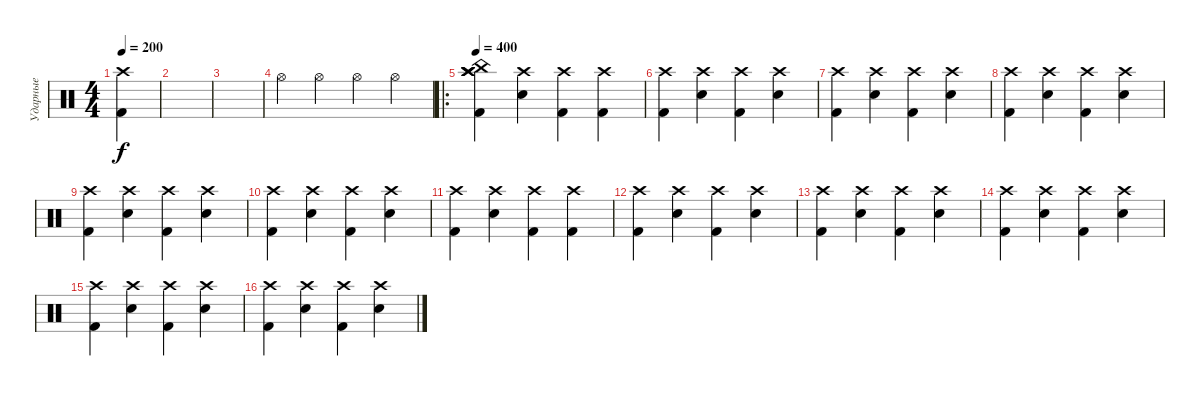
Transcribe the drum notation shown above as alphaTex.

\track ("Ударные" "Ударные") {instrument percussion}
\staff {score}
\articulation defaults
\ts (4 4)
\tempo 200
\clef neutral
\ks c
("Kick (hit) 2" "Crash high (hit)").4{dy f} |
|
|
"Hi-Hat (open)".4 "Hi-Hat (open)".4 "Hi-Hat (open)".4 "Hi-Hat (open)".4 |
\ro
\tempo 400
("Kick (hit) 2" "Crash high (hit)" "Crash high (hit)" "Crash high (hit)" "China (hit)").4 ("Electric Snare (hit)" "Crash high (hit)").4 ("Kick (hit) 2" "Crash high (hit)").4 ("Kick (hit) 2" "Crash high (hit)").4 |
("Kick (hit) 2" "Crash high (hit)").4 ("Electric Snare (hit)" "Crash high (hit)").4 ("Kick (hit) 2" "Crash high (hit)").4 ("Electric Snare (hit)" "Crash high (hit)").4 |
("Kick (hit) 2" "Crash high (hit)").4 ("Electric Snare (hit)" "Crash high (hit)").4 ("Kick (hit) 2" "Crash high (hit)").4 ("Electric Snare (hit)" "Crash high (hit)").4 |
("Kick (hit) 2" "Crash high (hit)").4 ("Electric Snare (hit)" "Crash high (hit)").4 ("Kick (hit) 2" "Crash high (hit)").4 ("Electric Snare (hit)" "Crash high (hit)").4 |
("Kick (hit) 2" "Crash high (hit)").4 ("Electric Snare (hit)" "Crash high (hit)").4 ("Kick (hit) 2" "Crash high (hit)").4 ("Electric Snare (hit)" "Crash high (hit)").4 |
("Kick (hit) 2" "Crash high (hit)").4 ("Electric Snare (hit)" "Crash high (hit)").4 ("Kick (hit) 2" "Crash high (hit)").4 ("Electric Snare (hit)" "Crash high (hit)").4 |
("Kick (hit) 2" "Crash high (hit)").4 ("Electric Snare (hit)" "Crash high (hit)").4 ("Kick (hit) 2" "Crash high (hit)").4 ("Kick (hit) 2" "Crash high (hit)").4 |
("Kick (hit) 2" "Crash high (hit)").4 ("Electric Snare (hit)" "Crash high (hit)").4 ("Kick (hit) 2" "Crash high (hit)").4 ("Electric Snare (hit)" "Crash high (hit)").4 |
("Kick (hit) 2" "Crash high (hit)").4 ("Electric Snare (hit)" "Crash high (hit)").4 ("Kick (hit) 2" "Crash high (hit)").4 ("Electric Snare (hit)" "Crash high (hit)").4 |
("Kick (hit) 2" "Crash high (hit)").4 ("Electric Snare (hit)" "Crash high (hit)").4 ("Kick (hit) 2" "Crash high (hit)").4 ("Electric Snare (hit)" "Crash high (hit)").4 |
("Kick (hit) 2" "Crash high (hit)").4 ("Electric Snare (hit)" "Crash high (hit)").4 ("Kick (hit) 2" "Crash high (hit)").4 ("Electric Snare (hit)" "Crash high (hit)").4 |
("Kick (hit) 2" "Crash high (hit)").4 ("Electric Snare (hit)" "Crash high (hit)").4 ("Kick (hit) 2" "Crash high (hit)").4 ("Electric Snare (hit)" "Crash high (hit)").4
